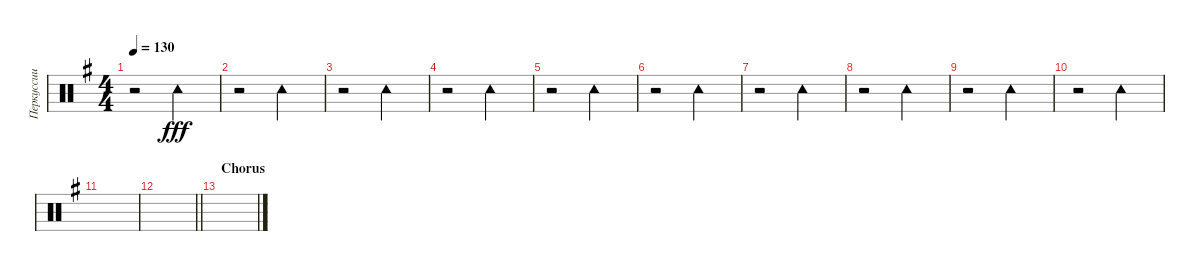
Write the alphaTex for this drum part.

\track ("Перкуссии" "Перкуссии") {instrument percussion}
\staff {score}
\articulation defaults
\ts (4 4)
\tempo 130
\clef neutral
\ks eminor
r.2{dy fff} "Tambourine (hit)".2 |
r.2 "Tambourine (hit)".2 |
r.2 "Tambourine (hit)".2 |
r.2 "Tambourine (hit)".2 |
r.2 "Tambourine (hit)".2 |
r.2 "Tambourine (hit)".2 |
r.2 "Tambourine (hit)".2 |
r.2 "Tambourine (hit)".2 |
r.2 "Tambourine (hit)".2 |
r.2 "Tambourine (hit)".2 |
|
\barLineRight lightlight
|
\section ("" "Chorus")
